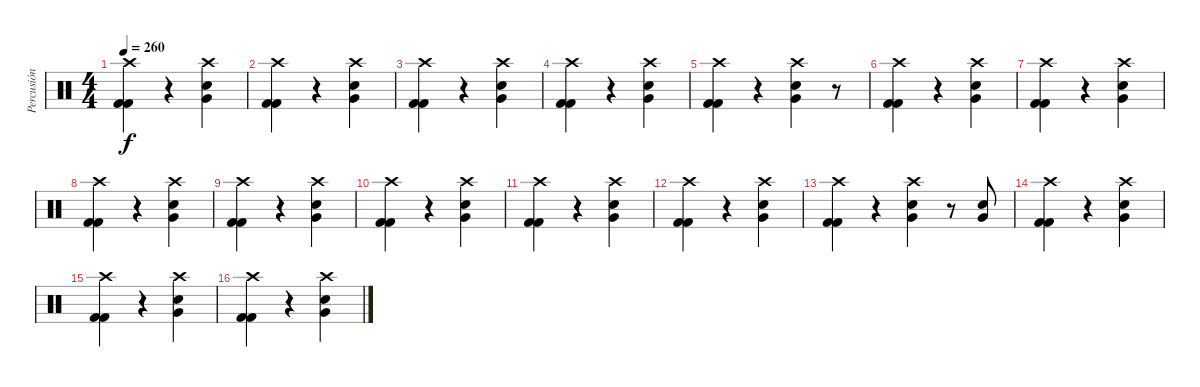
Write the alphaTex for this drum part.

\track ("Percusión" "Percusión") {instrument percussion}
\staff {score}
\articulation defaults
\ts (4 4)
\tempo 260
\clef neutral
\ks c
("Kick (hit) 2" "Kick (hit) 2" "Crash high (hit)").4{dy f} r.4 ("Very Low Tom (hit)" "Electric Snare (hit)" "Crash high (hit)").4 |
("Kick (hit) 2" "Kick (hit) 2" "Crash high (hit)").4 r.4 ("Very Low Tom (hit)" "Electric Snare (hit)" "Crash high (hit)").4 |
("Kick (hit) 2" "Kick (hit) 2" "Crash high (hit)").4 r.4 ("Very Low Tom (hit)" "Electric Snare (hit)" "Crash high (hit)").4 |
("Kick (hit) 2" "Kick (hit) 2" "Crash high (hit)").4 r.4 ("Very Low Tom (hit)" "Electric Snare (hit)" "Crash high (hit)").4 |
("Kick (hit) 2" "Kick (hit) 2" "Crash high (hit)").4 r.4 ("Very Low Tom (hit)" "Electric Snare (hit)" "Crash high (hit)").4 r.8 |
("Kick (hit) 2" "Kick (hit) 2" "Crash high (hit)").4 r.4 ("Very Low Tom (hit)" "Electric Snare (hit)" "Crash high (hit)").4 |
("Kick (hit) 2" "Kick (hit) 2" "Crash high (hit)").4 r.4 ("Very Low Tom (hit)" "Electric Snare (hit)" "Crash high (hit)").4 |
("Kick (hit) 2" "Kick (hit) 2" "Crash high (hit)").4 r.4 ("Very Low Tom (hit)" "Electric Snare (hit)" "Crash high (hit)").4 |
("Kick (hit) 2" "Kick (hit) 2" "Crash high (hit)").4 r.4 ("Very Low Tom (hit)" "Electric Snare (hit)" "Crash high (hit)").4 |
("Kick (hit) 2" "Kick (hit) 2" "Crash high (hit)").4 r.4 ("Very Low Tom (hit)" "Electric Snare (hit)" "Crash high (hit)").4 |
("Kick (hit) 2" "Kick (hit) 2" "Crash high (hit)").4 r.4 ("Very Low Tom (hit)" "Electric Snare (hit)" "Crash high (hit)").4 |
("Kick (hit) 2" "Kick (hit) 2" "Crash high (hit)").4 r.4 ("Very Low Tom (hit)" "Electric Snare (hit)" "Crash high (hit)").4 |
("Kick (hit) 2" "Kick (hit) 2" "Crash high (hit)").4 r.4 ("Very Low Tom (hit)" "Electric Snare (hit)" "Crash high (hit)").4 r.8 ("Very Low Tom (hit)" "Electric Snare (hit)").8 |
("Kick (hit) 2" "Kick (hit) 2" "Crash high (hit)").4 r.4 ("Very Low Tom (hit)" "Electric Snare (hit)" "Crash high (hit)").4 |
("Kick (hit) 2" "Kick (hit) 2" "Crash high (hit)").4 r.4 ("Very Low Tom (hit)" "Electric Snare (hit)" "Crash high (hit)").4 |
("Kick (hit) 2" "Kick (hit) 2" "Crash high (hit)").4 r.4 ("Very Low Tom (hit)" "Electric Snare (hit)" "Crash high (hit)").4
